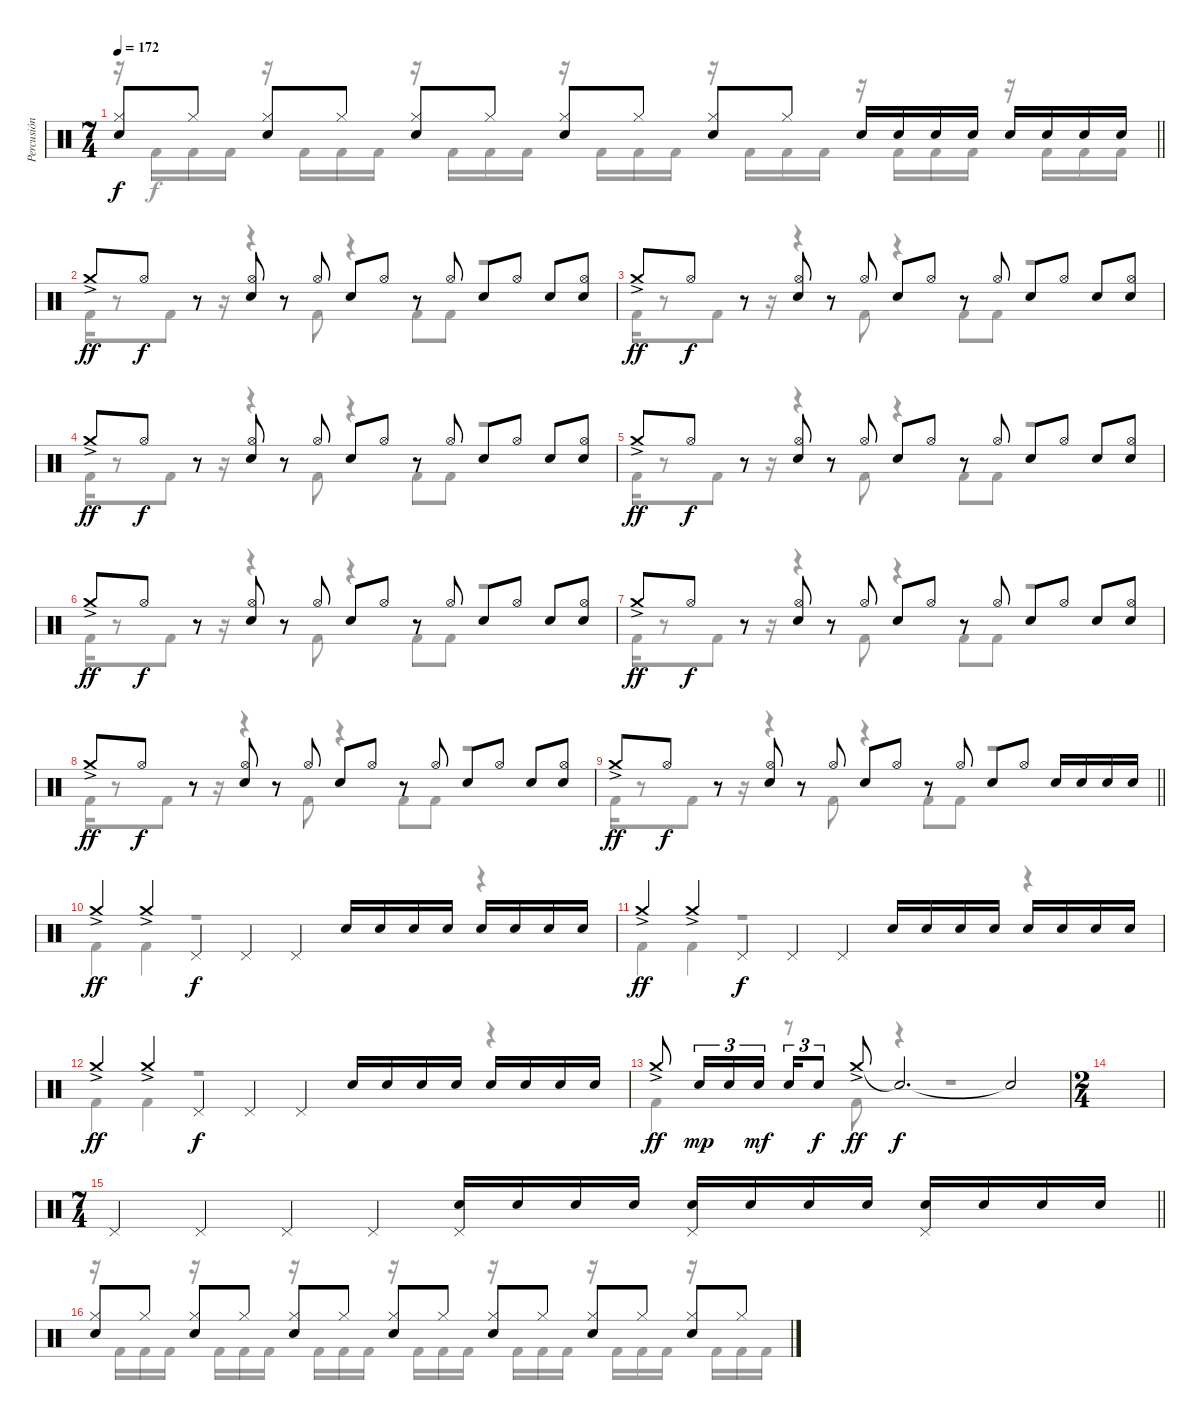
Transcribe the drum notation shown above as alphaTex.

\track ("Percusión" "Percusión") {instrument percussion}
\staff {score}
\articulation defaults
\voice
\ts (7 4)
\tempo 172
\clef neutral
\barLineRight lightlight
\ks c
("Hi-Hat (closed)" "Snare (hit) 2").8{dy f} "Hi-Hat (closed)".8 ("Hi-Hat (closed)" "Snare (hit) 2").8 "Hi-Hat (closed)".8 ("Hi-Hat (closed)" "Snare (hit) 2").8 "Hi-Hat (closed)".8 ("Hi-Hat (closed)" "Snare (hit) 2").8 "Hi-Hat (closed)".8 ("Hi-Hat (closed)" "Snare (hit) 2").8 "Hi-Hat (closed)".8 "Snare (hit) 2".16 "Snare (hit) 2".16 "Snare (hit) 2".16 "Snare (hit) 2".16 "Snare (hit) 2".16 "Snare (hit) 2".16 "Snare (hit) 2".16 "Snare (hit) 2".16 |
"Crash medium (hit)"{ac}.8{dy ff} "Hi-Hat (open)".8{dy f} r.8 ("Hi-Hat (open)" "Snare (hit) 2").8 r.8 "Hi-Hat (open)".8 "Snare (hit) 2".8 "Hi-Hat (open)".8 r.8 "Hi-Hat (open)".8 "Snare (hit) 2".8 "Hi-Hat (open)".8 "Electric Snare (hit)".8 ("Hi-Hat (open)" "Electric Snare (hit)").8 |
"Crash medium (hit)"{ac}.8{dy ff} "Hi-Hat (open)".8{dy f} r.8 ("Hi-Hat (open)" "Snare (hit) 2").8 r.8 "Hi-Hat (open)".8 "Snare (hit) 2".8 "Hi-Hat (open)".8 r.8 "Hi-Hat (open)".8 "Snare (hit) 2".8 "Hi-Hat (open)".8 "Electric Snare (hit)".8 ("Hi-Hat (open)" "Electric Snare (hit)").8 |
"Crash medium (hit)"{ac}.8{dy ff} "Hi-Hat (open)".8{dy f} r.8 ("Hi-Hat (open)" "Snare (hit) 2").8 r.8 "Hi-Hat (open)".8 "Snare (hit) 2".8 "Hi-Hat (open)".8 r.8 "Hi-Hat (open)".8 "Snare (hit) 2".8 "Hi-Hat (open)".8 "Electric Snare (hit)".8 ("Hi-Hat (open)" "Electric Snare (hit)").8 |
"Crash medium (hit)"{ac}.8{dy ff} "Hi-Hat (open)".8{dy f} r.8 ("Hi-Hat (open)" "Snare (hit) 2").8 r.8 "Hi-Hat (open)".8 "Snare (hit) 2".8 "Hi-Hat (open)".8 r.8 "Hi-Hat (open)".8 "Snare (hit) 2".8 "Hi-Hat (open)".8 "Electric Snare (hit)".8 ("Hi-Hat (open)" "Electric Snare (hit)").8 |
"Crash medium (hit)"{ac}.8{dy ff} "Hi-Hat (open)".8{dy f} r.8 ("Hi-Hat (open)" "Snare (hit) 2").8 r.8 "Hi-Hat (open)".8 "Snare (hit) 2".8 "Hi-Hat (open)".8 r.8 "Hi-Hat (open)".8 "Snare (hit) 2".8 "Hi-Hat (open)".8 "Electric Snare (hit)".8 ("Hi-Hat (open)" "Electric Snare (hit)").8 |
"Crash medium (hit)"{ac}.8{dy ff} "Hi-Hat (open)".8{dy f} r.8 ("Hi-Hat (open)" "Snare (hit) 2").8 r.8 "Hi-Hat (open)".8 "Snare (hit) 2".8 "Hi-Hat (open)".8 r.8 "Hi-Hat (open)".8 "Snare (hit) 2".8 "Hi-Hat (open)".8 "Electric Snare (hit)".8 ("Hi-Hat (open)" "Electric Snare (hit)").8 |
"Crash medium (hit)"{ac}.8{dy ff} "Hi-Hat (open)".8{dy f} r.8 ("Hi-Hat (open)" "Snare (hit) 2").8 r.8 "Hi-Hat (open)".8 "Snare (hit) 2".8 "Hi-Hat (open)".8 r.8 "Hi-Hat (open)".8 "Snare (hit) 2".8 "Hi-Hat (open)".8 "Electric Snare (hit)".8 ("Hi-Hat (open)" "Electric Snare (hit)").8 |
\barLineRight lightlight "Crash medium (hit)"{ac}.8{dy ff} "Hi-Hat (open)".8{dy f}
r.8 ("Hi-Hat (open)" "Snare (hit) 2").8 r.8 "Hi-Hat (open)".8 "Snare (hit) 2".8 "Hi-Hat (open)".8 r.8 "Hi-Hat (open)".8 "Snare (hit) 2".8 "Hi-Hat (open)".8 "Snare (hit) 2".16 "Snare (hit) 2".16 "Snare (hit) 2".16 "Snare (hit) 2".16 |
"Crash medium (hit)"{ac}.4{dy ff} "Crash medium (hit)"{ac}.4 "Pedal Hi-Hat (hit)".4{dy f} "Pedal Hi-Hat (hit)".4 "Pedal Hi-Hat (hit)".4 "Snare (hit) 2".16 "Snare (hit) 2".16 "Snare (hit) 2".16 "Snare (hit) 2".16 "Snare (hit) 2".16 "Snare (hit) 2".16 "Snare (hit) 2".16 "Snare (hit) 2".16 |
"Crash medium (hit)"{ac}.4{dy ff} "Crash medium (hit)"{ac}.4 "Pedal Hi-Hat (hit)".4{dy f} "Pedal Hi-Hat (hit)".4 "Pedal Hi-Hat (hit)".4 "Snare (hit) 2".16 "Snare (hit) 2".16 "Snare (hit) 2".16 "Snare (hit) 2".16 "Snare (hit) 2".16 "Snare (hit) 2".16 "Snare (hit) 2".16 "Snare (hit) 2".16 |
"Crash medium (hit)"{ac}.4{dy ff} "Crash medium (hit)"{ac}.4 "Pedal Hi-Hat (hit)".4{dy f} "Pedal Hi-Hat (hit)".4 "Pedal Hi-Hat (hit)".4 "Snare (hit) 2".16 "Snare (hit) 2".16 "Snare (hit) 2".16 "Snare (hit) 2".16 "Snare (hit) 2".16 "Snare (hit) 2".16 "Snare (hit) 2".16 "Snare (hit) 2".16 |
"Crash medium (hit)"{ac}.8{dy ff} "Electric Snare (hit)".16{tu (3 2) dy mp} "Electric Snare (hit)".16{tu (3 2)} "Electric Snare (hit)".16{tu (3 2) dy mf} "Electric Snare (hit)".16{tu (3 2)} "Electric Snare (hit)".8{tu (3 2) dy f} "Crash medium (hit)"{ac}.8{dy ff} "Snare (hit)"{t}.2{d dy f} "Snare (hit)"{t}.2 |
\ts (2 4)
|
\ts (7 4)
\barLineRight lightlight "Pedal Hi-Hat (hit)".4 "Pedal Hi-Hat (hit)".4 "Pedal Hi-Hat (hit)".4 "Pedal Hi-Hat (hit)".4
("Pedal Hi-Hat (hit)" "Snare (hit) 2").16 "Snare (hit) 2".16 "Snare (hit) 2".16 "Snare (hit) 2".16 ("Pedal Hi-Hat (hit)" "Snare (hit) 2").16 "Snare (hit) 2".16 "Snare (hit) 2".16 "Snare (hit) 2".16 ("Pedal Hi-Hat (hit)" "Snare (hit) 2").16 "Snare (hit) 2".16 "Snare (hit) 2".16 "Snare (hit) 2".16 |
("Hi-Hat (closed)" "Snare (hit) 2").8 "Hi-Hat (closed)".8 ("Hi-Hat (closed)" "Snare (hit) 2").8 "Hi-Hat (closed)".8 ("Hi-Hat (closed)" "Snare (hit) 2").8 "Hi-Hat (closed)".8 ("Hi-Hat (closed)" "Snare (hit) 2").8 "Hi-Hat (closed)".8 ("Hi-Hat (closed)" "Snare (hit) 2").8 "Hi-Hat (closed)".8 ("Hi-Hat (closed)" "Snare (hit) 2").8 "Hi-Hat (closed)".8 ("Hi-Hat (closed)" "Snare (hit) 2").8 "Hi-Hat (closed)".8
\voice
\clef neutral
\ottava regular
\simile none
\barLineRight lightlight
\ks c
r.16{dy f} "Kick (hit) 2".16 "Kick (hit) 2".16 "Kick (hit) 2".16 r.16 "Kick (hit) 2".16 "Kick (hit) 2".16 "Kick (hit) 2".16 r.16 "Kick (hit) 2".16 "Kick (hit) 2".16 "Kick (hit) 2".16 r.16 "Kick (hit) 2".16 "Kick (hit) 2".16 "Kick (hit) 2".16 r.16 "Kick (hit) 2".16 "Kick (hit) 2".16 "Kick (hit) 2".16 r.16 "Kick (hit) 2".16 "Kick (hit) 2".16 "Kick (hit) 2".16 r.16 "Kick (hit) 2".16 "Kick (hit) 2".16 "Kick (hit) 2".16 |
"Kick (hit) 2".16 r.8 "Kick (hit) 2".8 r.16 r.4 "Kick (hit) 2".8 r.4 "Kick (hit) 2".8 "Kick (hit) 2".8 r.2 |
"Kick (hit) 2".16 r.8 "Kick (hit) 2".8 r.16 r.4 "Kick (hit) 2".8 r.4 "Kick (hit) 2".8 "Kick (hit) 2".8 r.2 |
"Kick (hit) 2".16 r.8 "Kick (hit) 2".8 r.16 r.4 "Kick (hit) 2".8 r.4 "Kick (hit) 2".8 "Kick (hit) 2".8 r.2 |
"Kick (hit) 2".16 r.8 "Kick (hit) 2".8 r.16 r.4 "Kick (hit) 2".8 r.4 "Kick (hit) 2".8 "Kick (hit) 2".8 r.2 |
"Kick (hit) 2".16 r.8 "Kick (hit) 2".8 r.16 r.4 "Kick (hit) 2".8 r.4 "Kick (hit) 2".8 "Kick (hit) 2".8 r.2 |
"Kick (hit) 2".16 r.8 "Kick (hit) 2".8 r.16 r.4 "Kick (hit) 2".8 r.4 "Kick (hit) 2".8 "Kick (hit) 2".8 r.2 |
"Kick (hit) 2".16 r.8 "Kick (hit) 2".8 r.16 r.4 "Kick (hit) 2".8 r.4 "Kick (hit) 2".8 "Kick (hit) 2".8 r.2 |
\barLineRight lightlight "Kick (hit) 2".16
r.8 "Kick (hit) 2".8 r.16 r.4 "Kick (hit) 2".8 r.4 "Kick (hit) 2".8 "Kick (hit) 2".8 r.2 |
"Kick (hit) 2".4 "Kick (hit) 2".4 r.1 r.4 |
"Kick (hit) 2".4 "Kick (hit) 2".4 r.1 r.4 |
"Kick (hit) 2".4 "Kick (hit) 2".4 r.1 r.4 |
"Kick (hit) 2".4 r.8 "Kick (hit) 2".8 r.4 r.1 |
|
\barLineRight lightlight
|
r.16 "Kick (hit) 2".16 "Kick (hit) 2".16 "Kick (hit) 2".16 r.16 "Kick (hit) 2".16 "Kick (hit) 2".16 "Kick (hit) 2".16 r.16 "Kick (hit) 2".16 "Kick (hit) 2".16 "Kick (hit) 2".16 r.16 "Kick (hit) 2".16 "Kick (hit) 2".16 "Kick (hit) 2".16 r.16 "Kick (hit) 2".16 "Kick (hit) 2".16 "Kick (hit) 2".16 r.16 "Kick (hit) 2".16 "Kick (hit) 2".16 "Kick (hit) 2".16 r.16 "Kick (hit) 2".16 "Kick (hit) 2".16 "Kick (hit) 2".16
